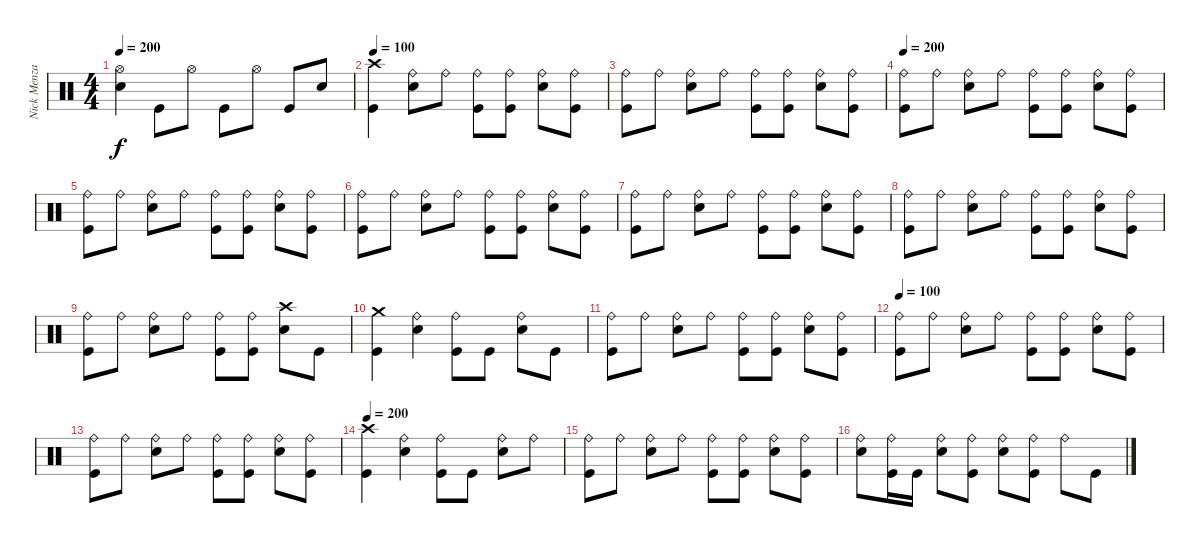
\track ("Nick Menza" "Nick Menza") {instrument percussion}
\staff {score}
\articulation defaults
\ts (4 4)
\tempo 200
\clef neutral
\ks c
("Hi-Hat (open)" "Snare (hit) 2").4{dy f} "Kick (hit)".8 "Hi-Hat (open)".8 "Kick (hit)".8 "Hi-Hat (open)".8 "Kick (hit)".8 "Snare (hit) 2".8 |
\tempo 100
("Crash high (hit)" "Kick (hit)").4 ("Ride (bell)" "Snare (hit) 2").8 "Ride (bell)".8 ("Ride (bell)" "Kick (hit)").8 ("Ride (bell)" "Kick (hit)").8 ("Ride (bell)" "Snare (hit) 2").8 ("Ride (bell)" "Kick (hit)").8 |
("Ride (bell)" "Kick (hit)").8 "Ride (bell)".8 ("Ride (bell)" "Snare (hit) 2").8 "Ride (bell)".8 ("Ride (bell)" "Kick (hit)").8 ("Ride (bell)" "Kick (hit)").8 ("Ride (bell)" "Snare (hit) 2").8 ("Ride (bell)" "Kick (hit)").8 |
\tempo 200
("Ride (bell)" "Kick (hit)").8 "Ride (bell)".8 ("Ride (bell)" "Snare (hit) 2").8 "Ride (bell)".8 ("Ride (bell)" "Kick (hit)").8 ("Ride (bell)" "Kick (hit)").8 ("Ride (bell)" "Snare (hit) 2").8 ("Ride (bell)" "Kick (hit)").8 |
("Ride (bell)" "Kick (hit)").8 "Ride (bell)".8 ("Ride (bell)" "Snare (hit) 2").8 "Ride (bell)".8 ("Ride (bell)" "Kick (hit)").8 ("Ride (bell)" "Kick (hit)").8 ("Ride (bell)" "Snare (hit) 2").8 ("Ride (bell)" "Kick (hit)").8 |
("Ride (bell)" "Kick (hit)").8 "Ride (bell)".8 ("Ride (bell)" "Snare (hit) 2").8 "Ride (bell)".8 ("Ride (bell)" "Kick (hit)").8 ("Ride (bell)" "Kick (hit)").8 ("Ride (bell)" "Snare (hit) 2").8 ("Ride (bell)" "Kick (hit)").8 |
("Ride (bell)" "Kick (hit)").8 "Ride (bell)".8 ("Ride (bell)" "Snare (hit) 2").8 "Ride (bell)".8 ("Ride (bell)" "Kick (hit)").8 ("Ride (bell)" "Kick (hit)").8 ("Ride (bell)" "Snare (hit) 2").8 ("Ride (bell)" "Kick (hit)").8 |
("Ride (bell)" "Kick (hit)").8 "Ride (bell)".8 ("Ride (bell)" "Snare (hit) 2").8 "Ride (bell)".8 ("Ride (bell)" "Kick (hit)").8 ("Ride (bell)" "Kick (hit)").8 ("Ride (bell)" "Snare (hit) 2").8 ("Ride (bell)" "Kick (hit)").8 |
("Ride (bell)" "Kick (hit)").8 "Ride (bell)".8 ("Ride (bell)" "Snare (hit) 2").8 "Ride (bell)".8 ("Ride (bell)" "Kick (hit)").8 ("Ride (bell)" "Kick (hit)").8 ("Crash high (hit)" "Snare (hit) 2").8 "Kick (hit)".8 |
("Crash medium (hit)" "Kick (hit)").4 ("Ride (bell)" "Snare (hit) 2").4 ("Ride (bell)" "Kick (hit)").8 "Kick (hit)".8 ("Ride (bell)" "Snare (hit) 2").8 "Kick (hit)".8 |
("Ride (bell)" "Kick (hit)").8 "Ride (bell)".8 ("Ride (bell)" "Snare (hit) 2").8 "Ride (bell)".8 ("Ride (bell)" "Kick (hit)").8 ("Ride (bell)" "Kick (hit)").8 ("Ride (bell)" "Snare (hit) 2").8 ("Ride (bell)" "Kick (hit)").8 |
\tempo 100
("Ride (bell)" "Kick (hit)").8 "Ride (bell)".8 ("Ride (bell)" "Snare (hit) 2").8 "Ride (bell)".8 ("Ride (bell)" "Kick (hit)").8 ("Ride (bell)" "Kick (hit)").8 ("Ride (bell)" "Snare (hit) 2").8 ("Ride (bell)" "Kick (hit)").8 |
("Ride (bell)" "Kick (hit)").8 "Ride (bell)".8 ("Ride (bell)" "Snare (hit) 2").8 "Ride (bell)".8 ("Ride (bell)" "Kick (hit)").8 ("Ride (bell)" "Kick (hit)").8 ("Ride (bell)" "Snare (hit) 2").8 ("Ride (bell)" "Kick (hit)").8 |
\tempo 200
("Crash high (hit)" "Kick (hit)").4 ("Ride (bell)" "Snare (hit) 2").4 ("Ride (bell)" "Kick (hit)").8 "Kick (hit)".8 ("Ride (bell)" "Snare (hit) 2").8 "Ride (bell)".8 |
("Ride (bell)" "Kick (hit)").8 "Ride (bell)".8 ("Ride (bell)" "Snare (hit) 2").8 "Ride (bell)".8 ("Ride (bell)" "Kick (hit)").8 ("Ride (bell)" "Kick (hit)").8 ("Ride (bell)" "Snare (hit) 2").8 ("Ride (bell)" "Kick (hit)").8 |
("Ride (bell)" "Snare (hit) 2").8 ("Ride (bell)" "Kick (hit)").16 "Kick (hit)".16 ("Ride (bell)" "Snare (hit) 2").8 ("Ride (bell)" "Kick (hit)").8 ("Ride (bell)" "Snare (hit) 2").8 ("Ride (bell)" "Kick (hit)").8 "Ride (bell)".8 "Kick (hit)".8
